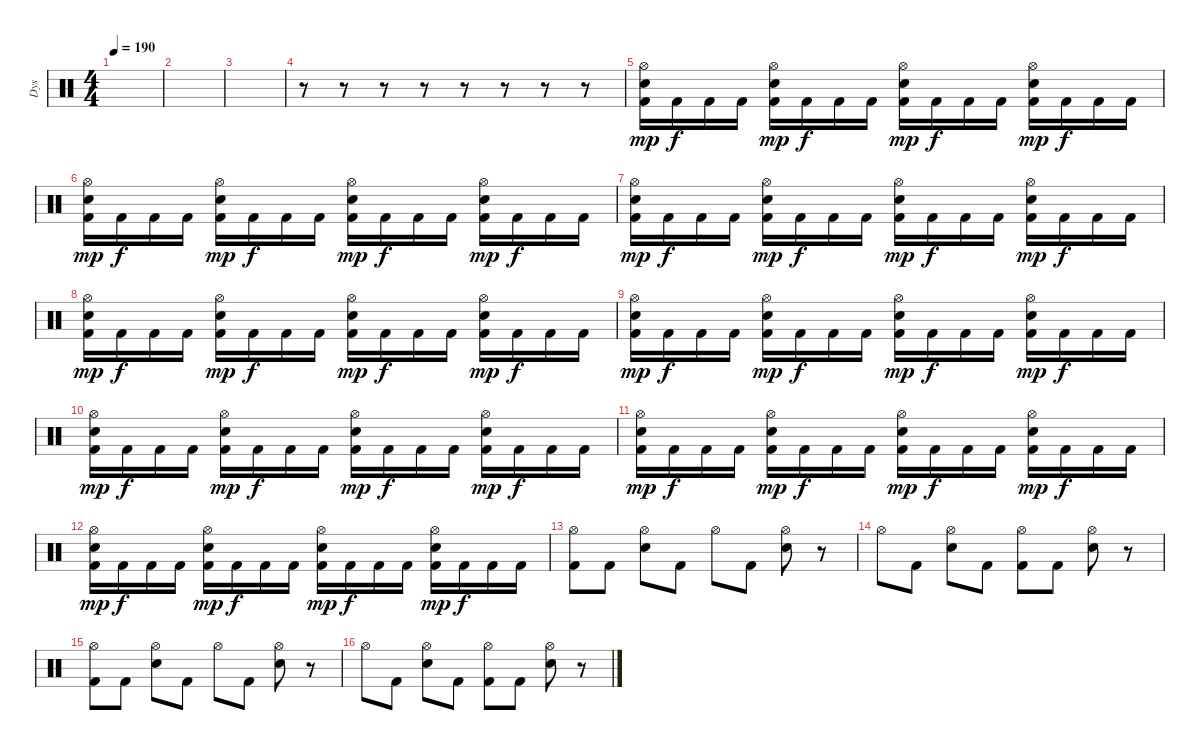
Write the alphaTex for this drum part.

\track ("Dys" "Dys") {instrument percussion}
\staff {score}
\articulation defaults
\ts (4 4)
\tempo 190
\clef neutral
\ks c
|
|
|
r.8 r.8 r.8 r.8 r.8 r.8 r.8 r.8 |
("Hi-Hat (open)" "Electric Snare (hit)" "Kick (hit) 2").16{dy mp} "Kick (hit) 2".16{dy f} "Kick (hit) 2".16 "Kick (hit) 2".16 ("Hi-Hat (open)" "Electric Snare (hit)" "Kick (hit) 2").16{dy mp} "Kick (hit) 2".16{dy f} "Kick (hit) 2".16 "Kick (hit) 2".16 ("Hi-Hat (open)" "Electric Snare (hit)" "Kick (hit) 2").16{dy mp} "Kick (hit) 2".16{dy f} "Kick (hit) 2".16 "Kick (hit) 2".16 ("Hi-Hat (open)" "Electric Snare (hit)" "Kick (hit) 2").16{dy mp} "Kick (hit) 2".16{dy f} "Kick (hit) 2".16 "Kick (hit) 2".16 |
("Hi-Hat (open)" "Electric Snare (hit)" "Kick (hit) 2").16{dy mp} "Kick (hit) 2".16{dy f} "Kick (hit) 2".16 "Kick (hit) 2".16 ("Hi-Hat (open)" "Electric Snare (hit)" "Kick (hit) 2").16{dy mp} "Kick (hit) 2".16{dy f} "Kick (hit) 2".16 "Kick (hit) 2".16 ("Hi-Hat (open)" "Electric Snare (hit)" "Kick (hit) 2").16{dy mp} "Kick (hit) 2".16{dy f} "Kick (hit) 2".16 "Kick (hit) 2".16 ("Hi-Hat (open)" "Electric Snare (hit)" "Kick (hit) 2").16{dy mp} "Kick (hit) 2".16{dy f} "Kick (hit) 2".16 "Kick (hit) 2".16 |
("Hi-Hat (open)" "Electric Snare (hit)" "Kick (hit) 2").16{dy mp} "Kick (hit) 2".16{dy f} "Kick (hit) 2".16 "Kick (hit) 2".16 ("Hi-Hat (open)" "Electric Snare (hit)" "Kick (hit) 2").16{dy mp} "Kick (hit) 2".16{dy f} "Kick (hit) 2".16 "Kick (hit) 2".16 ("Hi-Hat (open)" "Electric Snare (hit)" "Kick (hit) 2").16{dy mp} "Kick (hit) 2".16{dy f} "Kick (hit) 2".16 "Kick (hit) 2".16 ("Hi-Hat (open)" "Electric Snare (hit)" "Kick (hit) 2").16{dy mp} "Kick (hit) 2".16{dy f} "Kick (hit) 2".16 "Kick (hit) 2".16 |
("Hi-Hat (open)" "Electric Snare (hit)" "Kick (hit) 2").16{dy mp} "Kick (hit) 2".16{dy f} "Kick (hit) 2".16 "Kick (hit) 2".16 ("Hi-Hat (open)" "Electric Snare (hit)" "Kick (hit) 2").16{dy mp} "Kick (hit) 2".16{dy f} "Kick (hit) 2".16 "Kick (hit) 2".16 ("Hi-Hat (open)" "Electric Snare (hit)" "Kick (hit) 2").16{dy mp} "Kick (hit) 2".16{dy f} "Kick (hit) 2".16 "Kick (hit) 2".16 ("Hi-Hat (open)" "Electric Snare (hit)" "Kick (hit) 2").16{dy mp} "Kick (hit) 2".16{dy f} "Kick (hit) 2".16 "Kick (hit) 2".16 |
("Hi-Hat (open)" "Electric Snare (hit)" "Kick (hit) 2").16{dy mp} "Kick (hit) 2".16{dy f} "Kick (hit) 2".16 "Kick (hit) 2".16 ("Hi-Hat (open)" "Electric Snare (hit)" "Kick (hit) 2").16{dy mp} "Kick (hit) 2".16{dy f} "Kick (hit) 2".16 "Kick (hit) 2".16 ("Hi-Hat (open)" "Electric Snare (hit)" "Kick (hit) 2").16{dy mp} "Kick (hit) 2".16{dy f} "Kick (hit) 2".16 "Kick (hit) 2".16 ("Hi-Hat (open)" "Electric Snare (hit)" "Kick (hit) 2").16{dy mp} "Kick (hit) 2".16{dy f} "Kick (hit) 2".16 "Kick (hit) 2".16 |
("Hi-Hat (open)" "Electric Snare (hit)" "Kick (hit) 2").16{dy mp} "Kick (hit) 2".16{dy f} "Kick (hit) 2".16 "Kick (hit) 2".16 ("Hi-Hat (open)" "Electric Snare (hit)" "Kick (hit) 2").16{dy mp} "Kick (hit) 2".16{dy f} "Kick (hit) 2".16 "Kick (hit) 2".16 ("Hi-Hat (open)" "Electric Snare (hit)" "Kick (hit) 2").16{dy mp} "Kick (hit) 2".16{dy f} "Kick (hit) 2".16 "Kick (hit) 2".16 ("Hi-Hat (open)" "Electric Snare (hit)" "Kick (hit) 2").16{dy mp} "Kick (hit) 2".16{dy f} "Kick (hit) 2".16 "Kick (hit) 2".16 |
("Hi-Hat (open)" "Electric Snare (hit)" "Kick (hit) 2").16{dy mp} "Kick (hit) 2".16{dy f} "Kick (hit) 2".16 "Kick (hit) 2".16 ("Hi-Hat (open)" "Electric Snare (hit)" "Kick (hit) 2").16{dy mp} "Kick (hit) 2".16{dy f} "Kick (hit) 2".16 "Kick (hit) 2".16 ("Hi-Hat (open)" "Electric Snare (hit)" "Kick (hit) 2").16{dy mp} "Kick (hit) 2".16{dy f} "Kick (hit) 2".16 "Kick (hit) 2".16 ("Hi-Hat (open)" "Electric Snare (hit)" "Kick (hit) 2").16{dy mp} "Kick (hit) 2".16{dy f} "Kick (hit) 2".16 "Kick (hit) 2".16 |
("Hi-Hat (open)" "Electric Snare (hit)" "Kick (hit) 2").16{dy mp} "Kick (hit) 2".16{dy f} "Kick (hit) 2".16 "Kick (hit) 2".16 ("Hi-Hat (open)" "Electric Snare (hit)" "Kick (hit) 2").16{dy mp} "Kick (hit) 2".16{dy f} "Kick (hit) 2".16 "Kick (hit) 2".16 ("Hi-Hat (open)" "Electric Snare (hit)" "Kick (hit) 2").16{dy mp} "Kick (hit) 2".16{dy f} "Kick (hit) 2".16 "Kick (hit) 2".16 ("Hi-Hat (open)" "Electric Snare (hit)" "Kick (hit) 2").16{dy mp} "Kick (hit) 2".16{dy f} "Kick (hit) 2".16 "Kick (hit) 2".16 |
("Hi-Hat (open)" "Kick (hit) 2").8 "Kick (hit) 2".8 ("Hi-Hat (open)" "Electric Snare (hit)").8 "Kick (hit) 2".8 "Hi-Hat (open)".8 "Kick (hit) 2".8 ("Hi-Hat (open)" "Electric Snare (hit)").8 r.8 |
"Hi-Hat (open)".8 "Kick (hit) 2".8 ("Hi-Hat (open)" "Electric Snare (hit)").8 "Kick (hit) 2".8 ("Hi-Hat (open)" "Kick (hit) 2").8 "Kick (hit) 2".8 ("Hi-Hat (open)" "Electric Snare (hit)").8 r.8 |
("Hi-Hat (open)" "Kick (hit) 2").8 "Kick (hit) 2".8 ("Hi-Hat (open)" "Electric Snare (hit)").8 "Kick (hit) 2".8 "Hi-Hat (open)".8 "Kick (hit) 2".8 ("Hi-Hat (open)" "Electric Snare (hit)").8 r.8 |
"Hi-Hat (open)".8 "Kick (hit) 2".8 ("Hi-Hat (open)" "Electric Snare (hit)").8 "Kick (hit) 2".8 ("Hi-Hat (open)" "Kick (hit) 2").8 "Kick (hit) 2".8 ("Hi-Hat (open)" "Electric Snare (hit)").8 r.8
